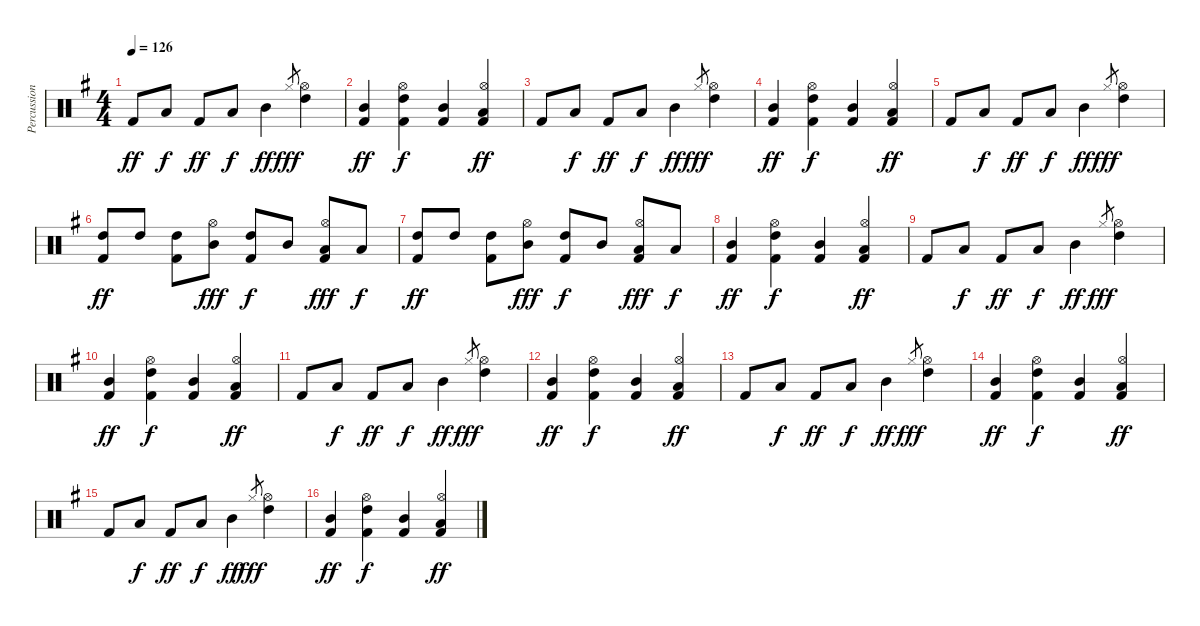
\track ("Percussion" "Percussion") {instrument percussion}
\staff {score}
\articulation defaults
\ts (4 4)
\tempo 126
\clef neutral
\ks g "Kick (hit) 2".8{dy ff} "Low Floor Tom (hit)".8{dy f} "Kick (hit) 2".8{dy ff} "Low Floor Tom (hit)".8{dy f} "Mid Tom (hit)".4{dy ff} "Hi-Hat (closed)".8{gr dy fff}
("High Tom (hit)" "Hi-Hat (open)").4 |
("Kick (hit) 2" "Mid Tom (hit)").4{dy ff} ("Kick (hit) 2" "High Tom (hit)" "Hi-Hat (open)").4{dy f} ("Kick (hit) 2" "Mid Tom (hit)").4 ("Kick (hit) 2" "Low Tom (hit)" "Hi-Hat (open)").4{dy ff} |
"Kick (hit) 2".8 "Low Floor Tom (hit)".8{dy f} "Kick (hit) 2".8{dy ff} "Low Floor Tom (hit)".8{dy f} "Mid Tom (hit)".4{dy ff} "Hi-Hat (closed)".8{gr dy fff} ("High Tom (hit)" "Hi-Hat (open)").4 |
("Kick (hit) 2" "Mid Tom (hit)").4{dy ff} ("Kick (hit) 2" "High Tom (hit)" "Hi-Hat (open)").4{dy f} ("Kick (hit) 2" "Mid Tom (hit)").4 ("Kick (hit) 2" "Low Tom (hit)" "Hi-Hat (open)").4{dy ff} |
"Kick (hit) 2".8{balance 3} "Low Floor Tom (hit)".8{dy f} "Kick (hit) 2".8{dy ff} "Low Floor Tom (hit)".8{dy f} "Mid Tom (hit)".4{dy ff} "Hi-Hat (closed)".8{gr dy fff} ("High Tom (hit)" "Hi-Hat (open)").4 |
("Kick (hit) 2" "High Tom (hit)").8{dy ff balance 10} "High Tom (hit)".8 ("Kick (hit) 2" "High Tom (hit)").8 ("Mid Tom (hit)" "Hi-Hat (open)").8{dy fff} ("Kick (hit) 2" "High Tom (hit)").8{dy f} "Mid Tom (hit)".8 ("Kick (hit) 2" "Low Tom (hit)" "Hi-Hat (open)").8{dy fff} "Low Tom (hit)".8{dy f} |
("Kick (hit) 2" "High Tom (hit)").8{dy ff} "High Tom (hit)".8 ("Kick (hit) 2" "High Tom (hit)").8 ("Mid Tom (hit)" "Hi-Hat (open)").8{dy fff} ("Kick (hit) 2" "High Tom (hit)").8{dy f} "Mid Tom (hit)".8 ("Kick (hit) 2" "Low Tom (hit)" "Hi-Hat (open)").8{dy fff} "Low Tom (hit)".8{dy f} |
("Kick (hit) 2" "Mid Tom (hit)").4{dy ff} ("Kick (hit) 2" "High Tom (hit)" "Hi-Hat (open)").4{dy f} ("Kick (hit) 2" "Mid Tom (hit)").4 ("Kick (hit) 2" "Low Tom (hit)" "Hi-Hat (open)").4{dy ff} |
"Kick (hit) 2".8 "Low Floor Tom (hit)".8{dy f} "Kick (hit) 2".8{dy ff} "Low Floor Tom (hit)".8{dy f} "Mid Tom (hit)".4{dy ff} "Hi-Hat (closed)".8{gr dy fff} ("High Tom (hit)" "Hi-Hat (open)").4 |
("Kick (hit) 2" "Mid Tom (hit)").4{dy ff} ("Kick (hit) 2" "High Tom (hit)" "Hi-Hat (open)").4{dy f} ("Kick (hit) 2" "Mid Tom (hit)").4 ("Kick (hit) 2" "Low Tom (hit)" "Hi-Hat (open)").4{dy ff} |
"Kick (hit) 2".8 "Low Floor Tom (hit)".8{dy f} "Kick (hit) 2".8{dy ff} "Low Floor Tom (hit)".8{dy f} "Mid Tom (hit)".4{dy ff} "Hi-Hat (closed)".8{gr dy fff} ("High Tom (hit)" "Hi-Hat (open)").4 |
("Kick (hit) 2" "Mid Tom (hit)").4{dy ff} ("Kick (hit) 2" "High Tom (hit)" "Hi-Hat (open)").4{dy f} ("Kick (hit) 2" "Mid Tom (hit)").4 ("Kick (hit) 2" "Low Tom (hit)" "Hi-Hat (open)").4{dy ff} |
"Kick (hit) 2".8 "Low Floor Tom (hit)".8{dy f} "Kick (hit) 2".8{dy ff} "Low Floor Tom (hit)".8{dy f} "Mid Tom (hit)".4{dy ff} "Hi-Hat (closed)".8{gr dy fff} ("High Tom (hit)" "Hi-Hat (open)").4 |
("Kick (hit) 2" "Mid Tom (hit)").4{dy ff} ("Kick (hit) 2" "High Tom (hit)" "Hi-Hat (open)").4{dy f} ("Kick (hit) 2" "Mid Tom (hit)").4 ("Kick (hit) 2" "Low Tom (hit)" "Hi-Hat (open)").4{dy ff} |
"Kick (hit) 2".8 "Low Floor Tom (hit)".8{dy f} "Kick (hit) 2".8{dy ff} "Low Floor Tom (hit)".8{dy f} "Mid Tom (hit)".4{dy ff} "Hi-Hat (closed)".8{gr dy fff} ("High Tom (hit)" "Hi-Hat (open)").4 |
("Kick (hit) 2" "Mid Tom (hit)").4{dy ff} ("Kick (hit) 2" "High Tom (hit)" "Hi-Hat (open)").4{dy f} ("Kick (hit) 2" "Mid Tom (hit)").4 ("Kick (hit) 2" "Low Tom (hit)" "Hi-Hat (open)").4{dy ff}
